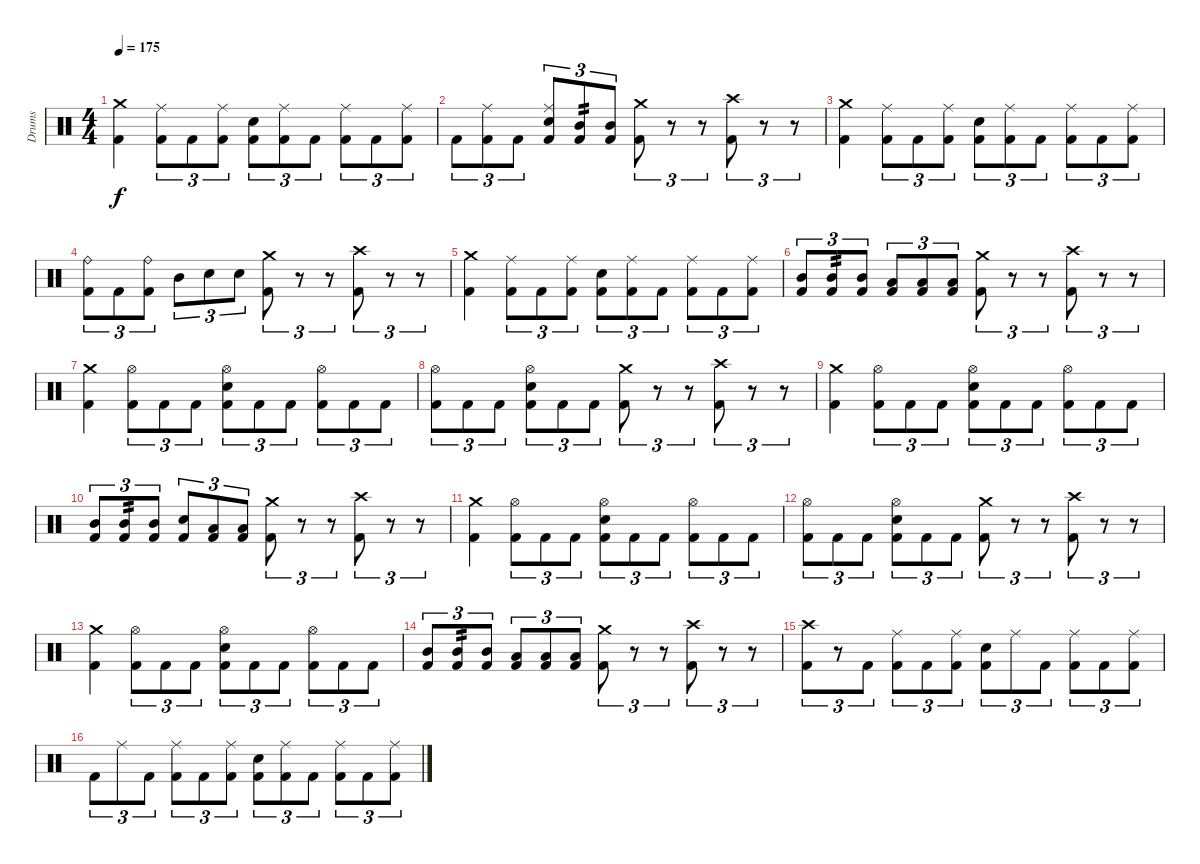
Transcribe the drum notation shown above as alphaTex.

\track ("Drums" "Drums") {instrument percussion}
\staff {score}
\articulation defaults
\ts (4 4)
\tempo 175
\clef neutral
\ks c
("Crash medium (hit)" "Kick (hit) 2").4{dy f} ("Ride (middle)" "Kick (hit) 2").8{tu (3 2)} "Kick (hit) 2".8{tu (3 2)} ("Ride (middle)" "Kick (hit) 2").8{tu (3 2)} ("Electric Snare (hit)" "Kick (hit) 2").8{tu (3 2)} ("Ride (middle)" "Kick (hit) 2").8{tu (3 2)} "Kick (hit) 2".8{tu (3 2)} ("Ride (middle)" "Kick (hit) 2").8{tu (3 2)} "Kick (hit) 2".8{tu (3 2)} ("Ride (middle)" "Kick (hit) 2").8{tu (3 2)} |
"Kick (hit) 2".8{tu (3 2)} ("Ride (middle)" "Kick (hit) 2").8{tu (3 2)} "Kick (hit) 2".8{tu (3 2)} ("Ride (middle)" "Electric Snare (hit)" "Kick (hit) 2").8{tu (3 2)} ("Mid Tom (hit)" "Kick (hit) 2").8{tu (3 2) tp 2} ("Mid Tom (hit)" "Kick (hit) 2").8{tu (3 2)} ("Crash medium (hit)" "Kick (hit) 2").8{tu (3 2)} r.8{tu (3 2)} r.8{tu (3 2)} ("Crash high (hit)" "Kick (hit) 2").8{tu (3 2)} r.8{tu (3 2)} r.8{tu (3 2)} |
("Crash medium (hit)" "Kick (hit) 2").4 ("Ride (middle)" "Kick (hit) 2").8{tu (3 2)} "Kick (hit) 2".8{tu (3 2)} ("Ride (middle)" "Kick (hit) 2").8{tu (3 2)} ("Electric Snare (hit)" "Kick (hit) 2").8{tu (3 2)} ("Ride (middle)" "Kick (hit) 2").8{tu (3 2)} "Kick (hit) 2".8{tu (3 2)} ("Ride (middle)" "Kick (hit) 2").8{tu (3 2)} "Kick (hit) 2".8{tu (3 2)} ("Ride (middle)" "Kick (hit) 2").8{tu (3 2)} |
("Ride (bell)" "Kick (hit) 2").8{tu (3 2)} "Kick (hit) 2".8{tu (3 2)} ("Ride (bell)" "Kick (hit) 2").8{tu (3 2)} "Mid Tom (hit)".8{tu (3 2)} "Electric Snare (hit)".8{tu (3 2)} "Electric Snare (hit)".8{tu (3 2)} ("Crash medium (hit)" "Kick (hit) 2").8{tu (3 2)} r.8{tu (3 2)} r.8{tu (3 2)} ("Crash high (hit)" "Kick (hit) 2").8{tu (3 2)} r.8{tu (3 2)} r.8{tu (3 2)} |
("Crash medium (hit)" "Kick (hit) 2").4 ("Ride (middle)" "Kick (hit) 2").8{tu (3 2)} "Kick (hit) 2".8{tu (3 2)} ("Ride (middle)" "Kick (hit) 2").8{tu (3 2)} ("Electric Snare (hit)" "Kick (hit) 2").8{tu (3 2)} ("Ride (middle)" "Kick (hit) 2").8{tu (3 2)} "Kick (hit) 2".8{tu (3 2)} ("Ride (middle)" "Kick (hit) 2").8{tu (3 2)} "Kick (hit) 2".8{tu (3 2)} ("Ride (middle)" "Kick (hit) 2").8{tu (3 2)} |
("Mid Tom (hit)" "Kick (hit) 2").8{tu (3 2)} ("Mid Tom (hit)" "Kick (hit) 2").8{tu (3 2) tp 2} ("Mid Tom (hit)" "Kick (hit) 2").8{tu (3 2)} ("Low Tom (hit)" "Kick (hit) 2").8{tu (3 2)} ("Low Tom (hit)" "Kick (hit) 2").8{tu (3 2)} ("Low Tom (hit)" "Kick (hit) 2").8{tu (3 2)} ("Crash medium (hit)" "Kick (hit) 2").8{tu (3 2)} r.8{tu (3 2)} r.8{tu (3 2)} ("Crash high (hit)" "Kick (hit) 2").8{tu (3 2)} r.8{tu (3 2)} r.8{tu (3 2)} |
("Crash medium (hit)" "Kick (hit) 2").4 ("Hi-Hat (open)" "Kick (hit) 2").8{tu (3 2)} "Kick (hit) 2".8{tu (3 2)} "Kick (hit) 2".8{tu (3 2)} ("Hi-Hat (open)" "Electric Snare (hit)" "Kick (hit) 2").8{tu (3 2)} "Kick (hit) 2".8{tu (3 2)} "Kick (hit) 2".8{tu (3 2)} ("Hi-Hat (open)" "Kick (hit) 2").8{tu (3 2)} "Kick (hit) 2".8{tu (3 2)} "Kick (hit) 2".8{tu (3 2)} |
("Hi-Hat (open)" "Kick (hit) 2").8{tu (3 2)} "Kick (hit) 2".8{tu (3 2)} "Kick (hit) 2".8{tu (3 2)} ("Hi-Hat (open)" "Electric Snare (hit)" "Kick (hit) 2").8{tu (3 2)} "Kick (hit) 2".8{tu (3 2)} "Kick (hit) 2".8{tu (3 2)} ("Crash medium (hit)" "Kick (hit) 2").8{tu (3 2)} r.8{tu (3 2)} r.8{tu (3 2)} ("Crash high (hit)" "Kick (hit) 2").8{tu (3 2)} r.8{tu (3 2)} r.8{tu (3 2)} |
("Crash medium (hit)" "Kick (hit) 2").4 ("Hi-Hat (open)" "Kick (hit) 2").8{tu (3 2)} "Kick (hit) 2".8{tu (3 2)} "Kick (hit) 2".8{tu (3 2)} ("Hi-Hat (open)" "Electric Snare (hit)" "Kick (hit) 2").8{tu (3 2)} "Kick (hit) 2".8{tu (3 2)} "Kick (hit) 2".8{tu (3 2)} ("Hi-Hat (open)" "Kick (hit) 2").8{tu (3 2)} "Kick (hit) 2".8{tu (3 2)} "Kick (hit) 2".8{tu (3 2)} |
("Mid Tom (hit)" "Kick (hit) 2").8{tu (3 2)} ("Mid Tom (hit)" "Kick (hit) 2").8{tu (3 2) tp 2} ("Mid Tom (hit)" "Kick (hit) 2").8{tu (3 2)} ("Electric Snare (hit)" "Kick (hit) 2").8{tu (3 2)} ("Low Tom (hit)" "Kick (hit) 2").8{tu (3 2)} ("Low Tom (hit)" "Kick (hit) 2").8{tu (3 2)} ("Crash medium (hit)" "Kick (hit) 2").8{tu (3 2)} r.8{tu (3 2)} r.8{tu (3 2)} ("Crash high (hit)" "Kick (hit) 2").8{tu (3 2)} r.8{tu (3 2)} r.8{tu (3 2)} |
("Crash medium (hit)" "Kick (hit) 2").4 ("Hi-Hat (open)" "Kick (hit) 2").8{tu (3 2)} "Kick (hit) 2".8{tu (3 2)} "Kick (hit) 2".8{tu (3 2)} ("Hi-Hat (open)" "Electric Snare (hit)" "Kick (hit) 2").8{tu (3 2)} "Kick (hit) 2".8{tu (3 2)} "Kick (hit) 2".8{tu (3 2)} ("Hi-Hat (open)" "Kick (hit) 2").8{tu (3 2)} "Kick (hit) 2".8{tu (3 2)} "Kick (hit) 2".8{tu (3 2)} |
("Hi-Hat (open)" "Kick (hit) 2").8{tu (3 2)} "Kick (hit) 2".8{tu (3 2)} "Kick (hit) 2".8{tu (3 2)} ("Hi-Hat (open)" "Electric Snare (hit)" "Kick (hit) 2").8{tu (3 2)} "Kick (hit) 2".8{tu (3 2)} "Kick (hit) 2".8{tu (3 2)} ("Crash medium (hit)" "Kick (hit) 2").8{tu (3 2)} r.8{tu (3 2)} r.8{tu (3 2)} ("Crash high (hit)" "Kick (hit) 2").8{tu (3 2)} r.8{tu (3 2)} r.8{tu (3 2)} |
("Crash medium (hit)" "Kick (hit) 2").4 ("Hi-Hat (open)" "Kick (hit) 2").8{tu (3 2)} "Kick (hit) 2".8{tu (3 2)} "Kick (hit) 2".8{tu (3 2)} ("Hi-Hat (open)" "Electric Snare (hit)" "Kick (hit) 2").8{tu (3 2)} "Kick (hit) 2".8{tu (3 2)} "Kick (hit) 2".8{tu (3 2)} ("Hi-Hat (open)" "Kick (hit) 2").8{tu (3 2)} "Kick (hit) 2".8{tu (3 2)} "Kick (hit) 2".8{tu (3 2)} |
("Mid Tom (hit)" "Kick (hit) 2").8{tu (3 2)} ("Mid Tom (hit)" "Kick (hit) 2").8{tu (3 2) tp 2} ("Mid Tom (hit)" "Kick (hit) 2").8{tu (3 2)} ("Low Tom (hit)" "Kick (hit) 2").8{tu (3 2)} ("Low Tom (hit)" "Kick (hit) 2").8{tu (3 2)} ("Low Tom (hit)" "Kick (hit) 2").8{tu (3 2)} ("Crash medium (hit)" "Kick (hit) 2").8{tu (3 2)} r.8{tu (3 2)} r.8{tu (3 2)} ("Crash high (hit)" "Kick (hit) 2").8{tu (3 2)} r.8{tu (3 2)} r.8{tu (3 2)} |
("Crash high (hit)" "Kick (hit) 2").8{tu (3 2)} r.8{tu (3 2)} "Kick (hit) 2".8{tu (3 2)} ("Ride (middle)" "Kick (hit) 2").8{tu (3 2)} "Kick (hit) 2".8{tu (3 2)} ("Ride (middle)" "Kick (hit) 2").8{tu (3 2)} ("Electric Snare (hit)" "Kick (hit) 2").8{tu (3 2)} "Ride (middle)".8{tu (3 2)} "Kick (hit) 2".8{tu (3 2)} ("Ride (middle)" "Kick (hit) 2").8{tu (3 2)} "Kick (hit) 2".8{tu (3 2)} ("Ride (middle)" "Kick (hit) 2").8{tu (3 2)} |
"Kick (hit) 2".8{tu (3 2)} "Ride (middle)".8{tu (3 2)} "Kick (hit) 2".8{tu (3 2)} ("Ride (middle)" "Kick (hit) 2").8{tu (3 2)} "Kick (hit) 2".8{tu (3 2)} ("Ride (middle)" "Kick (hit) 2").8{tu (3 2)} ("Electric Snare (hit)" "Kick (hit) 2").8{tu (3 2)} ("Ride (middle)" "Kick (hit) 2").8{tu (3 2)} "Kick (hit) 2".8{tu (3 2)} ("Ride (middle)" "Kick (hit) 2").8{tu (3 2)} "Kick (hit) 2".8{tu (3 2)} ("Ride (middle)" "Kick (hit) 2").8{tu (3 2)}
